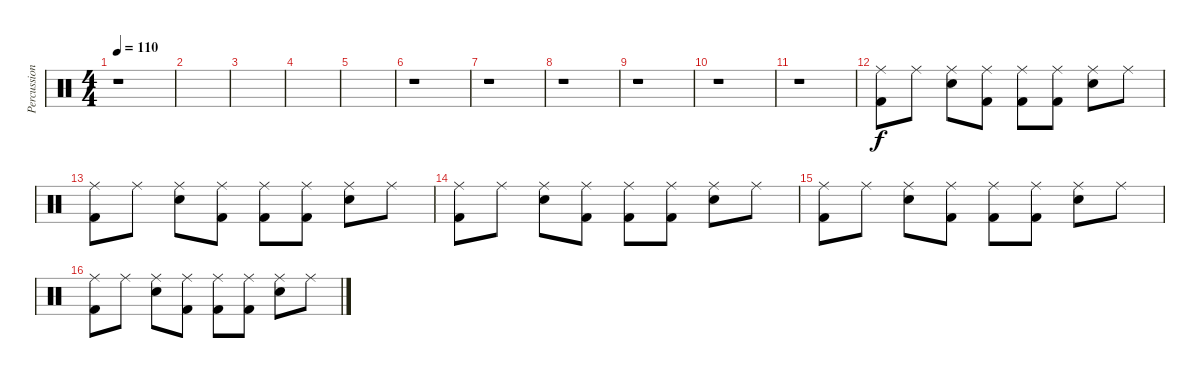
\track ("Percussions" "Percussion") {instrument percussion}
\staff {score}
\articulation defaults
\ts (4 4)
\tempo 110
\clef neutral
\ks c
r.1{dy f} |
|
|
|
|
r.1 |
r.1 |
r.1 |
r.1 |
r.1 |
r.1 |
("Ride (middle)" "Kick (hit) 2").8 "Ride (middle)".8 ("Ride (middle)" "Electric Snare (hit)").8 ("Ride (middle)" "Kick (hit) 2").8 ("Ride (middle)" "Kick (hit) 2").8 ("Ride (middle)" "Kick (hit) 2").8 ("Ride (middle)" "Electric Snare (hit)").8 "Ride (middle)".8 |
("Ride (middle)" "Kick (hit) 2").8 "Ride (middle)".8 ("Ride (middle)" "Electric Snare (hit)").8 ("Ride (middle)" "Kick (hit) 2").8 ("Ride (middle)" "Kick (hit) 2").8 ("Ride (middle)" "Kick (hit) 2").8 ("Ride (middle)" "Electric Snare (hit)").8 "Ride (middle)".8 |
("Ride (middle)" "Kick (hit) 2").8 "Ride (middle)".8 ("Ride (middle)" "Electric Snare (hit)").8 ("Ride (middle)" "Kick (hit) 2").8 ("Ride (middle)" "Kick (hit) 2").8 ("Ride (middle)" "Kick (hit) 2").8 ("Ride (middle)" "Electric Snare (hit)").8 "Ride (middle)".8 |
("Ride (middle)" "Kick (hit) 2").8 "Ride (middle)".8 ("Ride (middle)" "Electric Snare (hit)").8 ("Ride (middle)" "Kick (hit) 2").8 ("Ride (middle)" "Kick (hit) 2").8 ("Ride (middle)" "Kick (hit) 2").8 ("Ride (middle)" "Electric Snare (hit)").8 "Ride (middle)".8 |
("Ride (middle)" "Kick (hit) 2").8 "Ride (middle)".8 ("Ride (middle)" "Electric Snare (hit)").8 ("Ride (middle)" "Kick (hit) 2").8 ("Ride (middle)" "Kick (hit) 2").8 ("Ride (middle)" "Kick (hit) 2").8 ("Ride (middle)" "Electric Snare (hit)").8 "Ride (middle)".8
